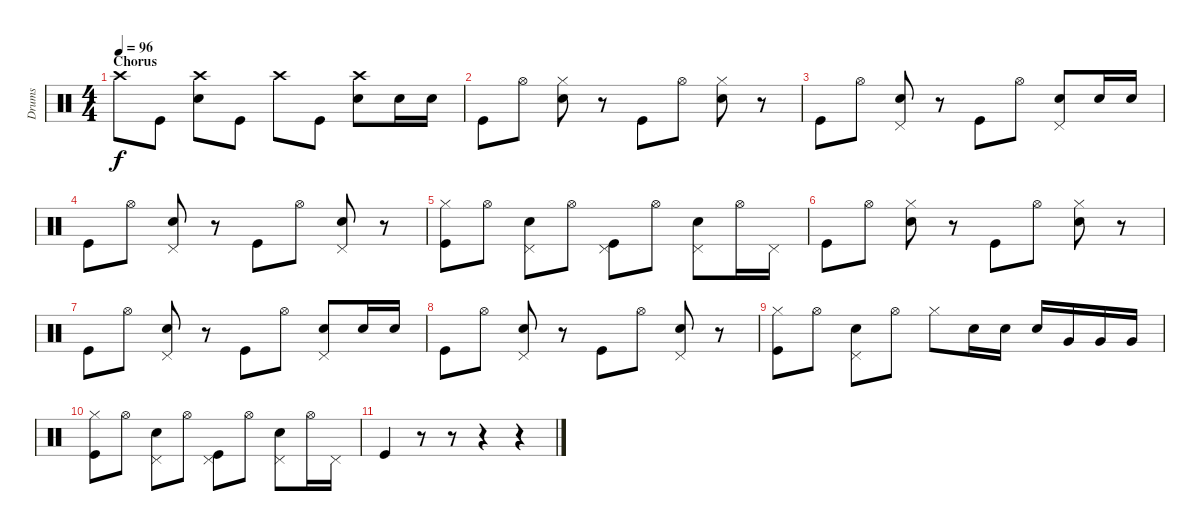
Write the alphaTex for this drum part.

\track ("Drums" "Drums") {instrument percussion}
\staff {score}
\articulation defaults
\ts (4 4)
\section ("" "Chorus")
\tempo 96
\clef neutral
\ks c "Crash high (hit)".8{dy f} "Kick (hit)".8
("Snare (hit) 2" "Crash high (hit)").8 "Kick (hit)".8 "Crash high (hit)".8 "Kick (hit)".8 ("Snare (hit) 2" "Crash high (hit)").8 "Snare (hit) 2".16 "Snare (hit) 2".16 |
"Kick (hit)".8 "Hi-Hat (open)".8 ("Hi-Hat (closed)" "Snare (hit) 2").8 r.8 "Kick (hit)".8 "Hi-Hat (open)".8 ("Hi-Hat (closed)" "Snare (hit) 2").8 r.8 |
"Kick (hit)".8 "Hi-Hat (open)".8 ("Pedal Hi-Hat (hit)" "Snare (hit) 2").8 r.8 "Kick (hit)".8 "Hi-Hat (open)".8 ("Pedal Hi-Hat (hit)" "Snare (hit) 2").8 "Snare (hit) 2".16 "Snare (hit) 2".16 |
"Kick (hit)".8 "Hi-Hat (open)".8 ("Pedal Hi-Hat (hit)" "Snare (hit) 2").8 r.8 "Kick (hit)".8 "Hi-Hat (open)".8 ("Pedal Hi-Hat (hit)" "Snare (hit) 2").8 r.8 |
("Hi-Hat (closed)" "Kick (hit)").8 "Hi-Hat (open)".8 ("Pedal Hi-Hat (hit)" "Snare (hit) 2").8 "Hi-Hat (open)".8 ("Pedal Hi-Hat (hit)" "Kick (hit)").8 "Hi-Hat (open)".8 ("Pedal Hi-Hat (hit)" "Snare (hit) 2").8 "Hi-Hat (open)".16 "Pedal Hi-Hat (hit)".16 |
"Kick (hit)".8 "Hi-Hat (open)".8 ("Hi-Hat (closed)" "Snare (hit) 2").8 r.8 "Kick (hit)".8 "Hi-Hat (open)".8 ("Hi-Hat (closed)" "Snare (hit) 2").8 r.8 |
"Kick (hit)".8 "Hi-Hat (open)".8 ("Pedal Hi-Hat (hit)" "Snare (hit) 2").8 r.8 "Kick (hit)".8 "Hi-Hat (open)".8 ("Pedal Hi-Hat (hit)" "Snare (hit) 2").8 "Snare (hit) 2".16 "Snare (hit) 2".16 |
"Kick (hit)".8 "Hi-Hat (open)".8 ("Pedal Hi-Hat (hit)" "Snare (hit) 2").8 r.8 "Kick (hit)".8 "Hi-Hat (open)".8 ("Pedal Hi-Hat (hit)" "Snare (hit) 2").8 r.8 |
("Hi-Hat (closed)" "Kick (hit)").8 "Hi-Hat (open)".8 ("Pedal Hi-Hat (hit)" "Snare (hit) 2").8 "Hi-Hat (open)".8 "Hi-Hat (closed)".8 "Snare (hit) 2".16 "Snare (hit) 2".16 "Snare (hit) 2".16 "Very Low Tom (hit)".16 "Very Low Tom (hit)".16 "Very Low Tom (hit)".16 |
("Kick (hit)" "Hi-Hat (closed)").8 "Hi-Hat (open)".8 ("Snare (hit) 2" "Pedal Hi-Hat (hit)").8 "Hi-Hat (open)".8 ("Kick (hit)" "Pedal Hi-Hat (hit)").8 "Hi-Hat (open)".8 ("Snare (hit) 2" "Pedal Hi-Hat (hit)").8 "Hi-Hat (open)".16 "Pedal Hi-Hat (hit)".16 |
"Kick (hit)".4 r.8 r.8 r.4 r.4
